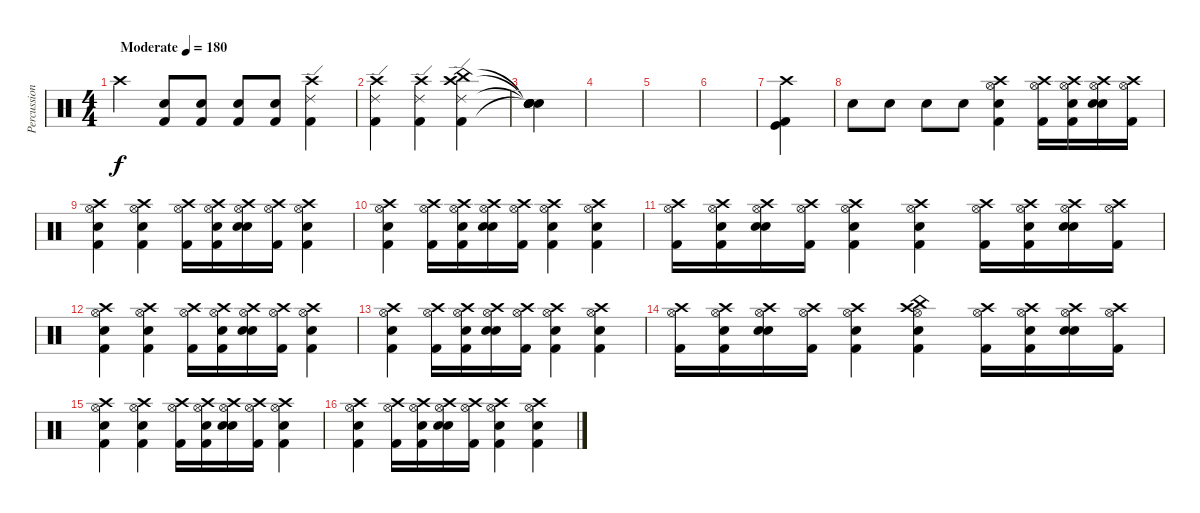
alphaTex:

\track ("Percussion" "Percussion") {instrument percussion}
\staff {score}
\articulation defaults
\ts (4 4)
\tempo (180 "Moderate")
\clef neutral
\ks c "Crash high (hit)".4{dy f}
("Electric Snare (hit)" "Kick (hit) 2").8 ("Electric Snare (hit)" "Kick (hit) 2").8 ("Electric Snare (hit)" "Kick (hit) 2").8 ("Electric Snare (hit)" "Kick (hit) 2").8 ("Ride (edge) 2" "Crash high (hit)" "Kick (hit) 2").4 |
("Ride (edge) 2" "Crash high (hit)" "Kick (hit) 2").4 ("Ride (edge) 2" "Crash high (hit)" "Kick (hit) 2").4 ("Crash high (hit)" "Ride (edge) 2" "China (hit)" "Kick (hit) 2").4 |
("Snare (hit)"{t} "Snare (hit)"{t} "Snare (hit)"{t} "Snare (hit)"{t} "Snare (hit)").4 |
|
|
|
("Crash high (hit)" "Kick (hit) 2" "Kick (hit)").4 |
"Snare (hit)".8 "Snare (hit)".8 "Snare (hit)".8 "Snare (hit)".8 ("Crash high (hit)" "Hi-Hat (open)" "Electric Snare (hit)" "Kick (hit) 2").4 ("Crash high (hit)" "Hi-Hat (open)" "Kick (hit) 2").16 ("Crash high (hit)" "Hi-Hat (open)" "Snare (hit)" "Kick (hit) 2").16 ("Crash high (hit)" "Hi-Hat (open)" "Electric Snare (hit)" "Snare (hit) 2").16 ("Crash high (hit)" "Hi-Hat (open)" "Kick (hit) 2").16 |
("Crash high (hit)" "Hi-Hat (open)" "Electric Snare (hit)" "Kick (hit) 2").4 ("Crash high (hit)" "Hi-Hat (open)" "Electric Snare (hit)" "Kick (hit) 2").4 ("Crash high (hit)" "Hi-Hat (open)" "Kick (hit) 2").16 ("Crash high (hit)" "Hi-Hat (open)" "Snare (hit)" "Kick (hit) 2").16 ("Crash high (hit)" "Hi-Hat (open)" "Electric Snare (hit)" "Snare (hit) 2").16 ("Crash high (hit)" "Hi-Hat (open)" "Kick (hit) 2").16 ("Crash high (hit)" "Hi-Hat (open)" "Electric Snare (hit)" "Kick (hit) 2").4 |
("Crash high (hit)" "Hi-Hat (open)" "Electric Snare (hit)" "Kick (hit) 2").4 ("Crash high (hit)" "Hi-Hat (open)" "Kick (hit) 2").16 ("Crash high (hit)" "Hi-Hat (open)" "Snare (hit)" "Kick (hit) 2").16 ("Crash high (hit)" "Hi-Hat (open)" "Electric Snare (hit)" "Snare (hit) 2").16 ("Crash high (hit)" "Hi-Hat (open)" "Kick (hit) 2").16 ("Crash high (hit)" "Hi-Hat (open)" "Electric Snare (hit)" "Kick (hit) 2").4 ("Crash high (hit)" "Hi-Hat (open)" "Electric Snare (hit)" "Kick (hit) 2").4 |
("Crash high (hit)" "Hi-Hat (open)" "Kick (hit) 2").16 ("Crash high (hit)" "Hi-Hat (open)" "Snare (hit)" "Kick (hit) 2").16 ("Crash high (hit)" "Hi-Hat (open)" "Electric Snare (hit)" "Snare (hit) 2").16 ("Crash high (hit)" "Hi-Hat (open)" "Kick (hit) 2").16 ("Crash high (hit)" "Hi-Hat (open)" "Electric Snare (hit)" "Kick (hit) 2").4 ("Crash high (hit)" "Hi-Hat (open)" "Electric Snare (hit)" "Kick (hit) 2").4 ("Crash high (hit)" "Hi-Hat (open)" "Kick (hit) 2").16 ("Crash high (hit)" "Hi-Hat (open)" "Snare (hit)" "Kick (hit) 2").16 ("Crash high (hit)" "Hi-Hat (open)" "Electric Snare (hit)" "Snare (hit) 2").16 ("Crash high (hit)" "Hi-Hat (open)" "Kick (hit) 2").16 |
("Crash high (hit)" "Hi-Hat (open)" "Electric Snare (hit)" "Kick (hit) 2").4 ("Crash high (hit)" "Hi-Hat (open)" "Electric Snare (hit)" "Kick (hit) 2").4 ("Crash high (hit)" "Hi-Hat (open)" "Kick (hit) 2").16 ("Crash high (hit)" "Hi-Hat (open)" "Snare (hit)" "Kick (hit) 2").16 ("Crash high (hit)" "Hi-Hat (open)" "Electric Snare (hit)" "Snare (hit) 2").16 ("Crash high (hit)" "Hi-Hat (open)" "Kick (hit) 2").16 ("Crash high (hit)" "Hi-Hat (open)" "Electric Snare (hit)" "Kick (hit) 2").4 |
("Crash high (hit)" "Hi-Hat (open)" "Electric Snare (hit)" "Kick (hit) 2").4 ("Crash high (hit)" "Hi-Hat (open)" "Kick (hit) 2").16 ("Crash high (hit)" "Hi-Hat (open)" "Snare (hit)" "Kick (hit) 2").16 ("Crash high (hit)" "Hi-Hat (open)" "Electric Snare (hit)" "Snare (hit) 2").16 ("Crash high (hit)" "Hi-Hat (open)" "Kick (hit) 2").16 ("Crash high (hit)" "Hi-Hat (open)" "Electric Snare (hit)" "Kick (hit) 2").4 ("Crash high (hit)" "Hi-Hat (open)" "Electric Snare (hit)" "Kick (hit) 2").4 |
("Crash high (hit)" "Hi-Hat (open)" "Kick (hit) 2").16 ("Crash high (hit)" "Hi-Hat (open)" "Snare (hit)" "Kick (hit) 2").16 ("Crash high (hit)" "Hi-Hat (open)" "Electric Snare (hit)" "Snare (hit) 2").16 ("Crash high (hit)" "Hi-Hat (open)" "Kick (hit) 2").16 ("Crash high (hit)" "Hi-Hat (open)" "Electric Snare (hit)" "Kick (hit) 2").4 ("China (hit)" "Crash high (hit)" "Hi-Hat (open)" "Electric Snare (hit)" "Kick (hit) 2").4 ("Crash high (hit)" "Hi-Hat (open)" "Kick (hit) 2").16 ("Crash high (hit)" "Hi-Hat (open)" "Snare (hit)" "Kick (hit) 2").16 ("Crash high (hit)" "Hi-Hat (open)" "Electric Snare (hit)" "Snare (hit) 2").16 ("Crash high (hit)" "Hi-Hat (open)" "Kick (hit) 2").16 |
("Crash high (hit)" "Hi-Hat (open)" "Electric Snare (hit)" "Kick (hit) 2").4 ("Crash high (hit)" "Hi-Hat (open)" "Electric Snare (hit)" "Kick (hit) 2").4 ("Crash high (hit)" "Hi-Hat (open)" "Kick (hit) 2").16 ("Crash high (hit)" "Hi-Hat (open)" "Snare (hit)" "Kick (hit) 2").16 ("Crash high (hit)" "Hi-Hat (open)" "Electric Snare (hit)" "Snare (hit) 2").16 ("Crash high (hit)" "Hi-Hat (open)" "Kick (hit) 2").16 ("Crash high (hit)" "Hi-Hat (open)" "Electric Snare (hit)" "Kick (hit) 2").4 |
("Crash high (hit)" "Hi-Hat (open)" "Electric Snare (hit)" "Kick (hit) 2").4 ("Crash high (hit)" "Hi-Hat (open)" "Kick (hit) 2").16 ("Crash high (hit)" "Hi-Hat (open)" "Snare (hit)" "Kick (hit) 2").16 ("Crash high (hit)" "Hi-Hat (open)" "Electric Snare (hit)" "Snare (hit) 2").16 ("Crash high (hit)" "Hi-Hat (open)" "Kick (hit) 2").16 ("Crash high (hit)" "Hi-Hat (open)" "Electric Snare (hit)" "Kick (hit) 2").4 ("Crash high (hit)" "Hi-Hat (open)" "Electric Snare (hit)" "Kick (hit) 2").4
